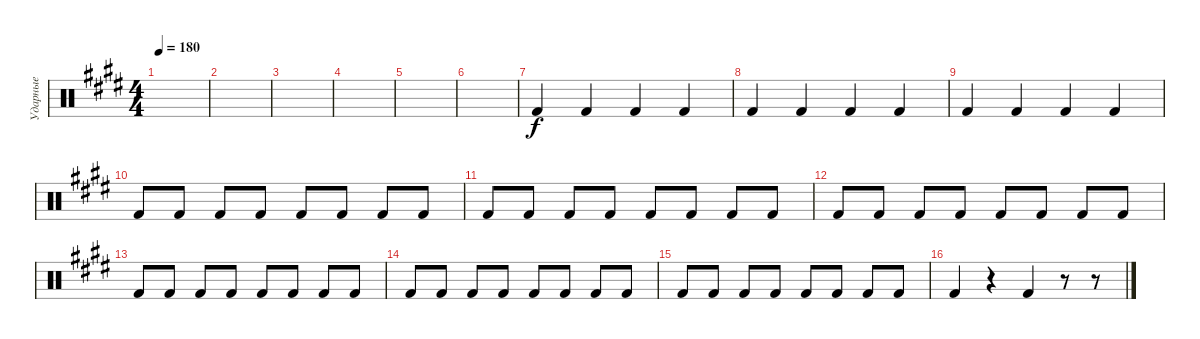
\track ("Ударные" "Ударные") {instrument percussion}
\staff {score}
\articulation defaults
\ts (4 4)
\tempo 180
\clef neutral
\ks e
|
|
|
|
|
|
"Kick (hit) 2".4 "Kick (hit) 2".4 "Kick (hit) 2".4 "Kick (hit) 2".4 |
"Kick (hit) 2".4 "Kick (hit) 2".4 "Kick (hit) 2".4 "Kick (hit) 2".4 |
"Kick (hit) 2".4 "Kick (hit) 2".4 "Kick (hit) 2".4 "Kick (hit) 2".4 |
"Kick (hit) 2".8 "Kick (hit) 2".8 "Kick (hit) 2".8 "Kick (hit) 2".8 "Kick (hit) 2".8 "Kick (hit) 2".8 "Kick (hit) 2".8 "Kick (hit) 2".8 |
"Kick (hit) 2".8 "Kick (hit) 2".8 "Kick (hit) 2".8 "Kick (hit) 2".8 "Kick (hit) 2".8 "Kick (hit) 2".8 "Kick (hit) 2".8 "Kick (hit) 2".8 |
"Kick (hit) 2".8 "Kick (hit) 2".8 "Kick (hit) 2".8 "Kick (hit) 2".8 "Kick (hit) 2".8 "Kick (hit) 2".8 "Kick (hit) 2".8 "Kick (hit) 2".8 |
"Kick (hit) 2".8 "Kick (hit) 2".8 "Kick (hit) 2".8 "Kick (hit) 2".8 "Kick (hit) 2".8 "Kick (hit) 2".8 "Kick (hit) 2".8 "Kick (hit) 2".8 |
"Kick (hit) 2".8 "Kick (hit) 2".8 "Kick (hit) 2".8 "Kick (hit) 2".8 "Kick (hit) 2".8 "Kick (hit) 2".8 "Kick (hit) 2".8 "Kick (hit) 2".8 |
"Kick (hit) 2".8 "Kick (hit) 2".8 "Kick (hit) 2".8 "Kick (hit) 2".8 "Kick (hit) 2".8 "Kick (hit) 2".8 "Kick (hit) 2".8 "Kick (hit) 2".8 |
"Kick (hit) 2".4 r.4 "Kick (hit) 2".4 r.8 r.8
